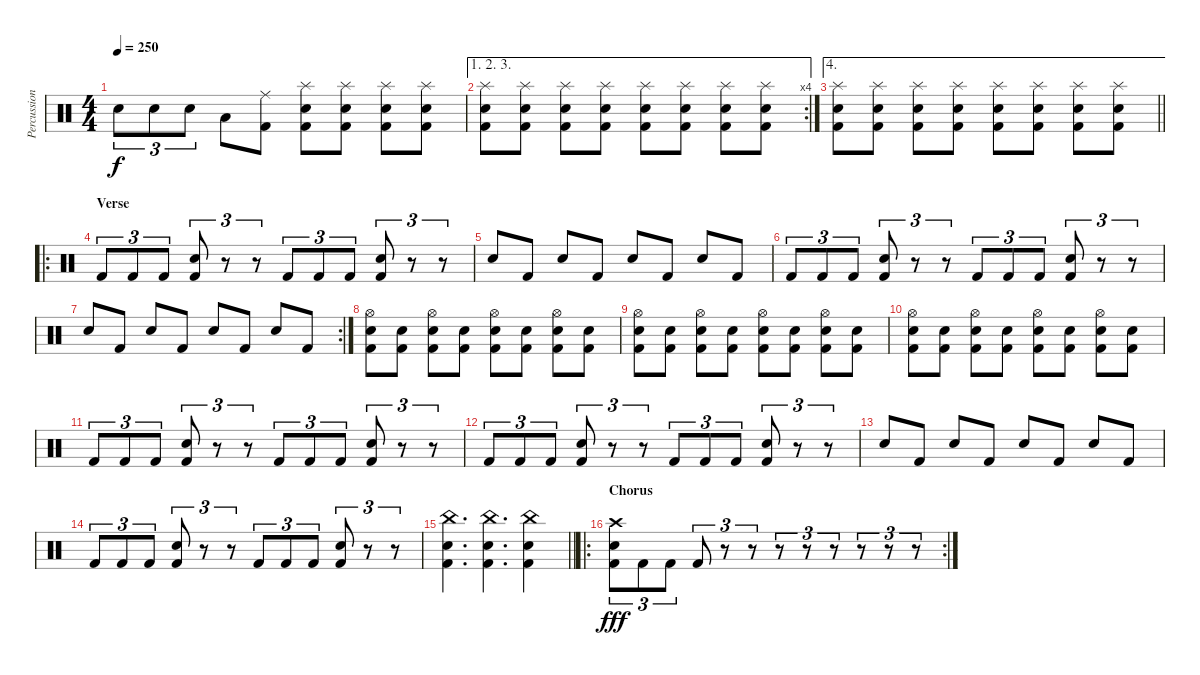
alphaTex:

\track ("Percussion" "Percussion") {instrument percussion}
\staff {score}
\articulation defaults
\ts (4 4)
\tempo 250
\clef neutral
\ks c "Electric Snare (hit)".8{tu (3 2) dy f} "Electric Snare (hit)".8{tu (3 2)} "Electric Snare (hit)".8{tu (3 2)} "Low Tom (hit)".8
("Ride (middle)" "Kick (hit) 2").8 ("Splash (hit)" "Electric Snare (hit)" "Kick (hit) 2").8 ("Splash (hit)" "Electric Snare (hit)" "Kick (hit) 2").8 ("Splash (hit)" "Electric Snare (hit)" "Kick (hit) 2").8 ("Splash (hit)" "Electric Snare (hit)" "Kick (hit) 2").8 |
\ae (1 2 3)
\rc 4
("Splash (hit)" "Electric Snare (hit)" "Kick (hit) 2").8 ("Splash (hit)" "Electric Snare (hit)" "Kick (hit) 2").8 ("Splash (hit)" "Electric Snare (hit)" "Kick (hit) 2").8 ("Splash (hit)" "Electric Snare (hit)" "Kick (hit) 2").8 ("Splash (hit)" "Electric Snare (hit)" "Kick (hit) 2").8 ("Splash (hit)" "Electric Snare (hit)" "Kick (hit) 2").8 ("Splash (hit)" "Electric Snare (hit)" "Kick (hit) 2").8 ("Splash (hit)" "Electric Snare (hit)" "Kick (hit) 2").8 |
\ae 4
\barLineRight lightlight
("Splash (hit)" "Electric Snare (hit)" "Kick (hit) 2").8 ("Splash (hit)" "Electric Snare (hit)" "Kick (hit) 2").8 ("Splash (hit)" "Electric Snare (hit)" "Kick (hit) 2").8 ("Splash (hit)" "Electric Snare (hit)" "Kick (hit) 2").8 ("Splash (hit)" "Electric Snare (hit)" "Kick (hit) 2").8 ("Splash (hit)" "Electric Snare (hit)" "Kick (hit) 2").8 ("Splash (hit)" "Electric Snare (hit)" "Kick (hit) 2").8 ("Splash (hit)" "Electric Snare (hit)" "Kick (hit) 2").8 |
\ro
\section ("" "Verse")
"Kick (hit) 2".8{tu (3 2)} "Kick (hit) 2".8{tu (3 2)} "Kick (hit) 2".8{tu (3 2)} ("Electric Snare (hit)" "Kick (hit) 2").8{tu (3 2)} r.8{tu (3 2)} r.8{tu (3 2)} "Kick (hit) 2".8{tu (3 2)} "Kick (hit) 2".8{tu (3 2)} "Kick (hit) 2".8{tu (3 2)} ("Electric Snare (hit)" "Kick (hit) 2").8{tu (3 2)} r.8{tu (3 2)} r.8{tu (3 2)} |
"Electric Snare (hit)".8 "Kick (hit) 2".8 "Electric Snare (hit)".8 "Kick (hit) 2".8 "Electric Snare (hit)".8 "Kick (hit) 2".8 "Electric Snare (hit)".8 "Kick (hit) 2".8 |
"Kick (hit) 2".8{tu (3 2)} "Kick (hit) 2".8{tu (3 2)} "Kick (hit) 2".8{tu (3 2)} ("Electric Snare (hit)" "Kick (hit) 2").8{tu (3 2)} r.8{tu (3 2)} r.8{tu (3 2)} "Kick (hit) 2".8{tu (3 2)} "Kick (hit) 2".8{tu (3 2)} "Kick (hit) 2".8{tu (3 2)} ("Electric Snare (hit)" "Kick (hit) 2").8{tu (3 2)} r.8{tu (3 2)} r.8{tu (3 2)} |
\rc 2 "Electric Snare (hit)".8 "Kick (hit) 2".8 "Electric Snare (hit)".8 "Kick (hit) 2".8 "Electric Snare (hit)".8 "Kick (hit) 2".8 "Electric Snare (hit)".8 "Kick (hit) 2".8
|
("Hi-Hat (open)" "Electric Snare (hit)" "Kick (hit) 2").8 ("Electric Snare (hit)" "Kick (hit) 2").8 ("Hi-Hat (open)" "Electric Snare (hit)" "Kick (hit) 2").8 ("Electric Snare (hit)" "Kick (hit) 2").8 ("Hi-Hat (open)" "Electric Snare (hit)" "Kick (hit) 2").8 ("Electric Snare (hit)" "Kick (hit) 2").8 ("Hi-Hat (open)" "Electric Snare (hit)" "Kick (hit) 2").8 ("Electric Snare (hit)" "Kick (hit) 2").8 |
("Hi-Hat (open)" "Electric Snare (hit)" "Kick (hit) 2").8 ("Electric Snare (hit)" "Kick (hit) 2").8 ("Hi-Hat (open)" "Electric Snare (hit)" "Kick (hit) 2").8 ("Electric Snare (hit)" "Kick (hit) 2").8 ("Hi-Hat (open)" "Electric Snare (hit)" "Kick (hit) 2").8 ("Electric Snare (hit)" "Kick (hit) 2").8 ("Hi-Hat (open)" "Electric Snare (hit)" "Kick (hit) 2").8 ("Electric Snare (hit)" "Kick (hit) 2").8 |
("Hi-Hat (open)" "Electric Snare (hit)" "Kick (hit) 2").8 ("Electric Snare (hit)" "Kick (hit) 2").8 ("Hi-Hat (open)" "Electric Snare (hit)" "Kick (hit) 2").8 ("Electric Snare (hit)" "Kick (hit) 2").8 ("Hi-Hat (open)" "Electric Snare (hit)" "Kick (hit) 2").8 ("Electric Snare (hit)" "Kick (hit) 2").8 ("Hi-Hat (open)" "Electric Snare (hit)" "Kick (hit) 2").8 ("Electric Snare (hit)" "Kick (hit) 2").8 |
"Kick (hit) 2".8{tu (3 2)} "Kick (hit) 2".8{tu (3 2)} "Kick (hit) 2".8{tu (3 2)} ("Electric Snare (hit)" "Kick (hit) 2").8{tu (3 2)} r.8{tu (3 2)} r.8{tu (3 2)} "Kick (hit) 2".8{tu (3 2)} "Kick (hit) 2".8{tu (3 2)} "Kick (hit) 2".8{tu (3 2)} ("Electric Snare (hit)" "Kick (hit) 2").8{tu (3 2)} r.8{tu (3 2)} r.8{tu (3 2)} |
"Kick (hit) 2".8{tu (3 2)} "Kick (hit) 2".8{tu (3 2)} "Kick (hit) 2".8{tu (3 2)} ("Electric Snare (hit)" "Kick (hit) 2").8{tu (3 2)} r.8{tu (3 2)} r.8{tu (3 2)} "Kick (hit) 2".8{tu (3 2)} "Kick (hit) 2".8{tu (3 2)} "Kick (hit) 2".8{tu (3 2)} ("Electric Snare (hit)" "Kick (hit) 2").8{tu (3 2)} r.8{tu (3 2)} r.8{tu (3 2)} |
"Electric Snare (hit)".8 "Kick (hit) 2".8 "Electric Snare (hit)".8 "Kick (hit) 2".8 "Electric Snare (hit)".8 "Kick (hit) 2".8 "Electric Snare (hit)".8 "Kick (hit) 2".8 |
"Kick (hit) 2".8{tu (3 2)} "Kick (hit) 2".8{tu (3 2)} "Kick (hit) 2".8{tu (3 2)} ("Electric Snare (hit)" "Kick (hit) 2").8{tu (3 2)} r.8{tu (3 2)} r.8{tu (3 2)} "Kick (hit) 2".8{tu (3 2)} "Kick (hit) 2".8{tu (3 2)} "Kick (hit) 2".8{tu (3 2)} ("Electric Snare (hit)" "Kick (hit) 2").8{tu (3 2)} r.8{tu (3 2)} r.8{tu (3 2)} |
\barLineRight lightlight
("China (hit)" "Electric Snare (hit)" "Kick (hit) 2").4{d} ("China (hit)" "Electric Snare (hit)" "Kick (hit) 2").4{d} ("China (hit)" "Electric Snare (hit)" "Kick (hit) 2").4 |
\ro
\rc 2
\section ("" "Chorus")
("Crash high (hit)" "Electric Snare (hit)" "Kick (hit) 2").8{tu (3 2) dy fff} "Kick (hit) 2".8{tu (3 2)} "Kick (hit) 2".8{tu (3 2)} "Kick (hit) 2".8{tu (3 2)} r.8{tu (3 2)} r.8{tu (3 2)} r.8{tu (3 2)} r.8{tu (3 2)} r.8{tu (3 2)} r.8{tu (3 2)} r.8{tu (3 2)} r.8{tu (3 2)}
